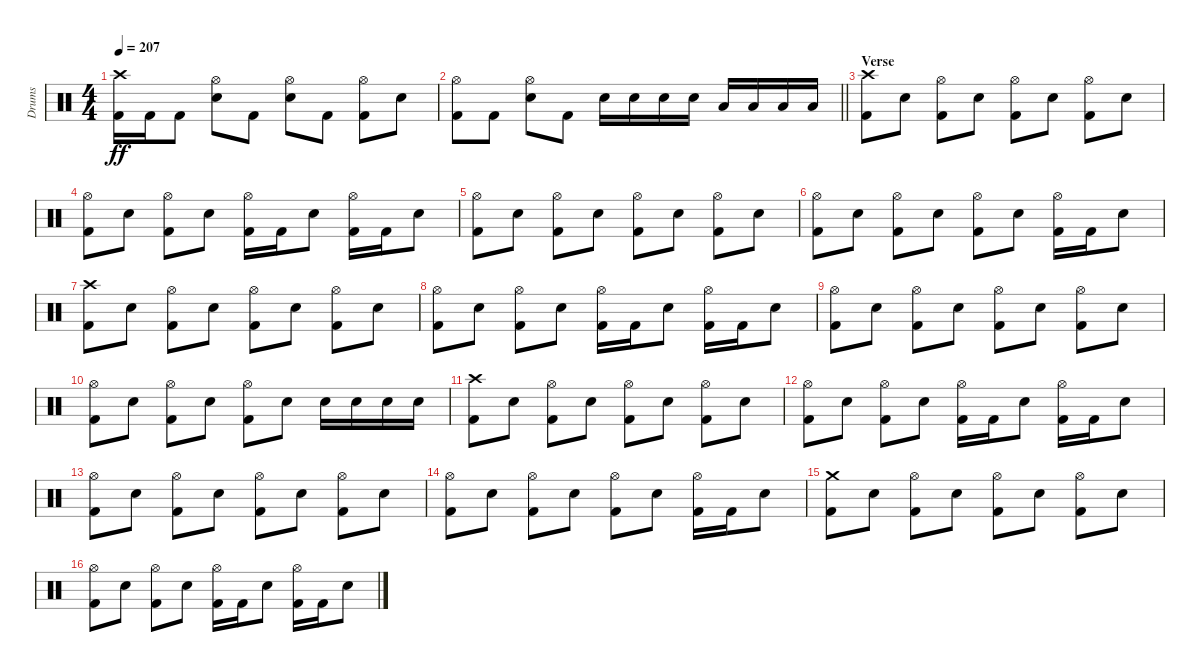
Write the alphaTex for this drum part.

\track ("Drums" "Drums") {instrument percussion}
\staff {score}
\articulation defaults
\ts (4 4)
\tempo 207
\clef neutral
\ks c
("Crash high (hit)" "Kick (hit) 2").16{dy ff} "Kick (hit) 2".16 "Kick (hit) 2".8 ("Hi-Hat (open)" "Snare (hit) 2").8 "Kick (hit) 2".8 ("Hi-Hat (open)" "Snare (hit) 2").8 "Kick (hit) 2".8 ("Hi-Hat (open)" "Kick (hit) 2").8 "Snare (hit) 2".8 |
\barLineRight lightlight
("Hi-Hat (open)" "Kick (hit) 2").8 "Kick (hit) 2".8 ("Hi-Hat (open)" "Snare (hit) 2").8 "Kick (hit) 2".8 "Snare (hit) 2".16 "Snare (hit) 2".16 "Snare (hit) 2".16 "Snare (hit) 2".16 "Low Tom (hit)".16 "Low Tom (hit)".16 "Low Tom (hit)".16 "Low Tom (hit)".16 |
\section ("" "Verse")
("Crash high (hit)" "Kick (hit) 2").8 "Snare (hit) 2".8 ("Hi-Hat (open)" "Kick (hit) 2").8 "Snare (hit) 2".8 ("Hi-Hat (open)" "Kick (hit) 2").8 "Snare (hit) 2".8 ("Hi-Hat (open)" "Kick (hit) 2").8 "Snare (hit) 2".8 |
("Hi-Hat (open)" "Kick (hit) 2").8 "Snare (hit) 2".8 ("Hi-Hat (open)" "Kick (hit) 2").8 "Snare (hit) 2".8 ("Hi-Hat (open)" "Kick (hit) 2").16 "Kick (hit) 2".16 "Snare (hit) 2".8 ("Hi-Hat (open)" "Kick (hit) 2").16 "Kick (hit) 2".16 "Snare (hit) 2".8 |
("Hi-Hat (open)" "Kick (hit) 2").8 "Snare (hit) 2".8 ("Hi-Hat (open)" "Kick (hit) 2").8 "Snare (hit) 2".8 ("Hi-Hat (open)" "Kick (hit) 2").8 "Snare (hit) 2".8 ("Hi-Hat (open)" "Kick (hit) 2").8 "Snare (hit) 2".8 |
("Hi-Hat (open)" "Kick (hit) 2").8 "Snare (hit) 2".8 ("Hi-Hat (open)" "Kick (hit) 2").8 "Snare (hit) 2".8 ("Hi-Hat (open)" "Kick (hit) 2").8 "Snare (hit) 2".8 ("Hi-Hat (open)" "Kick (hit) 2").16 "Kick (hit) 2".16 "Snare (hit) 2".8 |
("Crash high (hit)" "Kick (hit) 2").8 "Snare (hit) 2".8 ("Hi-Hat (open)" "Kick (hit) 2").8 "Snare (hit) 2".8 ("Hi-Hat (open)" "Kick (hit) 2").8 "Snare (hit) 2".8 ("Hi-Hat (open)" "Kick (hit) 2").8 "Snare (hit) 2".8 |
("Hi-Hat (open)" "Kick (hit) 2").8 "Snare (hit) 2".8 ("Hi-Hat (open)" "Kick (hit) 2").8 "Snare (hit) 2".8 ("Hi-Hat (open)" "Kick (hit) 2").16 "Kick (hit) 2".16 "Snare (hit) 2".8 ("Hi-Hat (open)" "Kick (hit) 2").16 "Kick (hit) 2".16 "Snare (hit) 2".8 |
("Hi-Hat (open)" "Kick (hit) 2").8 "Snare (hit) 2".8 ("Hi-Hat (open)" "Kick (hit) 2").8 "Snare (hit) 2".8 ("Hi-Hat (open)" "Kick (hit) 2").8 "Snare (hit) 2".8 ("Hi-Hat (open)" "Kick (hit) 2").8 "Snare (hit) 2".8 |
("Hi-Hat (open)" "Kick (hit) 2").8 "Snare (hit) 2".8 ("Hi-Hat (open)" "Kick (hit) 2").8 "Snare (hit) 2".8 ("Hi-Hat (open)" "Kick (hit) 2").8 "Snare (hit) 2".8 "Snare (hit) 2".16 "Snare (hit) 2".16 "Snare (hit) 2".16 "Snare (hit) 2".16 |
("Crash high (hit)" "Kick (hit) 2").8 "Snare (hit) 2".8 ("Hi-Hat (open)" "Kick (hit) 2").8 "Snare (hit) 2".8 ("Hi-Hat (open)" "Kick (hit) 2").8 "Snare (hit) 2".8 ("Hi-Hat (open)" "Kick (hit) 2").8 "Snare (hit) 2".8 |
("Hi-Hat (open)" "Kick (hit) 2").8 "Snare (hit) 2".8 ("Hi-Hat (open)" "Kick (hit) 2").8 "Snare (hit) 2".8 ("Hi-Hat (open)" "Kick (hit) 2").16 "Kick (hit) 2".16 "Snare (hit) 2".8 ("Hi-Hat (open)" "Kick (hit) 2").16 "Kick (hit) 2".16 "Snare (hit) 2".8 |
("Hi-Hat (open)" "Kick (hit) 2").8 "Snare (hit) 2".8 ("Hi-Hat (open)" "Kick (hit) 2").8 "Snare (hit) 2".8 ("Hi-Hat (open)" "Kick (hit) 2").8 "Snare (hit) 2".8 ("Hi-Hat (open)" "Kick (hit) 2").8 "Snare (hit) 2".8 |
("Hi-Hat (open)" "Kick (hit) 2").8 "Snare (hit) 2".8 ("Hi-Hat (open)" "Kick (hit) 2").8 "Snare (hit) 2".8 ("Hi-Hat (open)" "Kick (hit) 2").8 "Snare (hit) 2".8 ("Hi-Hat (open)" "Kick (hit) 2").16 "Kick (hit) 2".16 "Snare (hit) 2".8 |
("Crash medium (hit)" "Kick (hit) 2").8 "Snare (hit) 2".8 ("Hi-Hat (open)" "Kick (hit) 2").8 "Snare (hit) 2".8 ("Hi-Hat (open)" "Kick (hit) 2").8 "Snare (hit) 2".8 ("Hi-Hat (open)" "Kick (hit) 2").8 "Snare (hit) 2".8 |
("Hi-Hat (open)" "Kick (hit) 2").8 "Snare (hit) 2".8 ("Hi-Hat (open)" "Kick (hit) 2").8 "Snare (hit) 2".8 ("Hi-Hat (open)" "Kick (hit) 2").16 "Kick (hit) 2".16 "Snare (hit) 2".8 ("Hi-Hat (open)" "Kick (hit) 2").16 "Kick (hit) 2".16 "Snare (hit) 2".8
